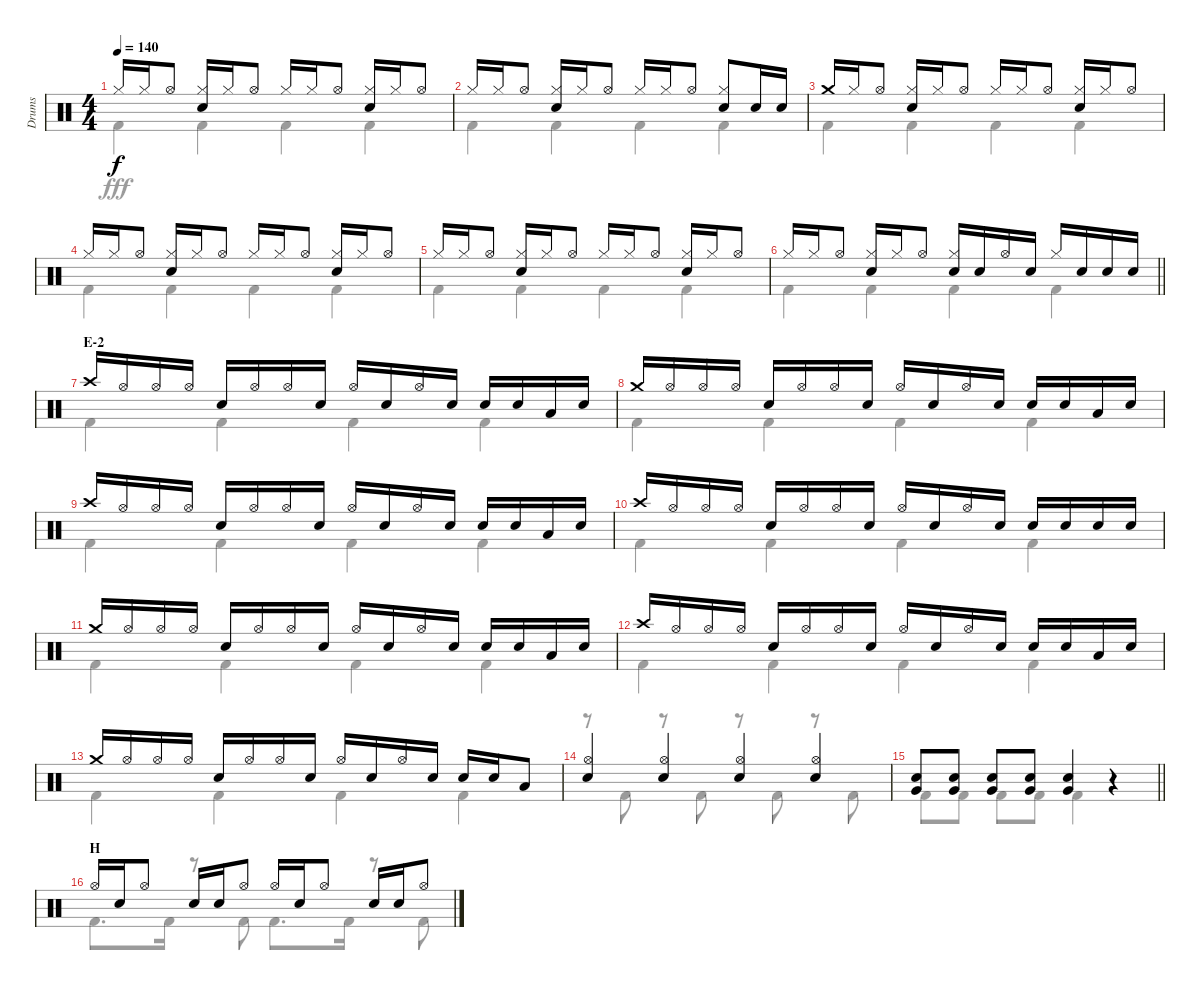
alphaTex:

\track ("Drums" "Drums") {instrument percussion}
\staff {score}
\articulation defaults
\voice
\ts (4 4)
\tempo 140
\clef neutral
\ks c "Hi-Hat (closed)".16{dy f} "Hi-Hat (closed)".16 "Hi-Hat (open)".8
("Hi-Hat (closed)" "Snare (hit) 2").16 "Hi-Hat (closed)".16 "Hi-Hat (open)".8 "Hi-Hat (closed)".16 "Hi-Hat (closed)".16 "Hi-Hat (open)".8 ("Hi-Hat (closed)" "Snare (hit) 2").16 "Hi-Hat (closed)".16 "Hi-Hat (open)".8 |
"Hi-Hat (closed)".16 "Hi-Hat (closed)".16 "Hi-Hat (open)".8 ("Hi-Hat (closed)" "Snare (hit) 2").16 "Hi-Hat (closed)".16 "Hi-Hat (open)".8 "Hi-Hat (closed)".16 "Hi-Hat (closed)".16 "Hi-Hat (open)".8 ("Hi-Hat (closed)" "Snare (hit) 2").8 "Snare (hit) 2".16 "Snare (hit) 2".16 |
"Crash medium (hit)".16 "Hi-Hat (closed)".16 "Hi-Hat (open)".8 ("Hi-Hat (closed)" "Snare (hit) 2").16 "Hi-Hat (closed)".16 "Hi-Hat (open)".8 "Hi-Hat (closed)".16 "Hi-Hat (closed)".16 "Hi-Hat (open)".8 ("Hi-Hat (closed)" "Snare (hit) 2").16 "Hi-Hat (closed)".16 "Hi-Hat (open)".8 |
"Hi-Hat (closed)".16 "Hi-Hat (closed)".16 "Hi-Hat (open)".8 ("Hi-Hat (closed)" "Snare (hit) 2").16 "Hi-Hat (closed)".16 "Hi-Hat (open)".8 "Hi-Hat (closed)".16 "Hi-Hat (closed)".16 "Hi-Hat (open)".8 ("Hi-Hat (closed)" "Snare (hit) 2").16 "Hi-Hat (closed)".16 "Hi-Hat (open)".8 |
"Hi-Hat (closed)".16 "Hi-Hat (closed)".16 "Hi-Hat (open)".8 ("Hi-Hat (closed)" "Snare (hit) 2").16 "Hi-Hat (closed)".16 "Hi-Hat (open)".8 "Hi-Hat (closed)".16 "Hi-Hat (closed)".16 "Hi-Hat (open)".8 ("Hi-Hat (closed)" "Snare (hit) 2").16 "Hi-Hat (closed)".16 "Hi-Hat (open)".8 |
\barLineRight lightlight "Hi-Hat (closed)".16 "Hi-Hat (closed)".16 "Hi-Hat (open)".8
("Hi-Hat (closed)" "Snare (hit) 2").16 "Hi-Hat (closed)".16 "Hi-Hat (open)".8 ("Hi-Hat (closed)" "Snare (hit) 2").16 "Snare (hit) 2".16 "Hi-Hat (open)".16 "Snare (hit) 2".16 "Hi-Hat (closed)".16 "Snare (hit) 2".16 "Snare (hit) 2".16 "Snare (hit) 2".16 |
\section ("" "E-2")
"Crash high (hit)".16 "Hi-Hat (open)".16 "Hi-Hat (open)".16 "Hi-Hat (open)".16 "Snare (hit) 2".16 "Hi-Hat (open)".16 "Hi-Hat (open)".16 "Snare (hit) 2".16 "Hi-Hat (open)".16 "Snare (hit) 2".16 "Hi-Hat (open)".16 "Snare (hit) 2".16 "Snare (hit) 2".16 "Snare (hit) 2".16 "Low Tom (hit)".16 "Snare (hit) 2".16 |
"Crash medium (hit)".16 "Hi-Hat (open)".16 "Hi-Hat (open)".16 "Hi-Hat (open)".16 "Snare (hit) 2".16 "Hi-Hat (open)".16 "Hi-Hat (open)".16 "Snare (hit) 2".16 "Hi-Hat (open)".16 "Snare (hit) 2".16 "Hi-Hat (open)".16 "Snare (hit) 2".16 "Snare (hit) 2".16 "Snare (hit) 2".16 "Low Tom (hit)".16 "Snare (hit) 2".16 |
"Crash high (hit)".16 "Hi-Hat (open)".16 "Hi-Hat (open)".16 "Hi-Hat (open)".16 "Snare (hit) 2".16 "Hi-Hat (open)".16 "Hi-Hat (open)".16 "Snare (hit) 2".16 "Hi-Hat (open)".16 "Snare (hit) 2".16 "Hi-Hat (open)".16 "Snare (hit) 2".16 "Snare (hit) 2".16 "Snare (hit) 2".16 "Low Tom (hit)".16 "Snare (hit) 2".16 |
"Crash high (hit)".16 "Hi-Hat (open)".16 "Hi-Hat (open)".16 "Hi-Hat (open)".16 "Snare (hit) 2".16 "Hi-Hat (open)".16 "Hi-Hat (open)".16 "Snare (hit) 2".16 "Hi-Hat (open)".16 "Snare (hit) 2".16 "Hi-Hat (open)".16 "Snare (hit) 2".16 "Snare (hit) 2".16 "Snare (hit) 2".16 "Snare (hit) 2".16 "Snare (hit) 2".16 |
"Crash medium (hit)".16 "Hi-Hat (open)".16 "Hi-Hat (open)".16 "Hi-Hat (open)".16 "Snare (hit) 2".16 "Hi-Hat (open)".16 "Hi-Hat (open)".16 "Snare (hit) 2".16 "Hi-Hat (open)".16 "Snare (hit) 2".16 "Hi-Hat (open)".16 "Snare (hit) 2".16 "Snare (hit) 2".16 "Snare (hit) 2".16 "Low Tom (hit)".16 "Snare (hit) 2".16 |
"Crash high (hit)".16 "Hi-Hat (open)".16 "Hi-Hat (open)".16 "Hi-Hat (open)".16 "Snare (hit) 2".16 "Hi-Hat (open)".16 "Hi-Hat (open)".16 "Snare (hit) 2".16 "Hi-Hat (open)".16 "Snare (hit) 2".16 "Hi-Hat (open)".16 "Snare (hit) 2".16 "Snare (hit) 2".16 "Snare (hit) 2".16 "Low Tom (hit)".16 "Snare (hit) 2".16 |
"Crash medium (hit)".16 "Hi-Hat (open)".16 "Hi-Hat (open)".16 "Hi-Hat (open)".16 "Snare (hit) 2".16 "Hi-Hat (open)".16 "Hi-Hat (open)".16 "Snare (hit) 2".16 "Hi-Hat (open)".16 "Snare (hit) 2".16 "Hi-Hat (open)".16 "Snare (hit) 2".16 "Snare (hit) 2".16 "Snare (hit) 2".16 "Low Tom (hit)".8 |
("Hi-Hat (open)" "Snare (hit) 2").4 ("Hi-Hat (open)" "Snare (hit) 2").4 ("Hi-Hat (open)" "Snare (hit) 2").4 ("Hi-Hat (open)" "Snare (hit) 2").4 |
\barLineRight lightlight
("Snare (hit) 2" "Very Low Tom (hit)").8 ("Snare (hit) 2" "Very Low Tom (hit)").8 ("Snare (hit) 2" "Very Low Tom (hit)").8 ("Snare (hit) 2" "Very Low Tom (hit)").8 ("Snare (hit) 2" "Very Low Tom (hit)").4 r.4 |
\section ("" "H")
"Hi-Hat (open)".16 "Snare (hit) 2".16 "Hi-Hat (open)".8 "Snare (hit) 2".16 "Snare (hit) 2".16 "Hi-Hat (open)".8 "Hi-Hat (open)".16 "Snare (hit) 2".16 "Hi-Hat (open)".8 "Snare (hit) 2".16 "Snare (hit) 2".16 "Hi-Hat (open)".8
\voice
\clef neutral
\ottava regular
\simile none
\ks c "Kick (hit) 2".4{dy fff} "Kick (hit) 2".4 "Kick (hit) 2".4 "Kick (hit) 2".4
|
"Kick (hit) 2".4 "Kick (hit) 2".4 "Kick (hit) 2".4 "Kick (hit) 2".4 |
"Kick (hit) 2".4 "Kick (hit) 2".4 "Kick (hit) 2".4 "Kick (hit) 2".4 |
"Kick (hit) 2".4 "Kick (hit) 2".4 "Kick (hit) 2".4 "Kick (hit) 2".4 |
"Kick (hit) 2".4 "Kick (hit) 2".4 "Kick (hit) 2".4 "Kick (hit) 2".4 |
\barLineRight lightlight "Kick (hit) 2".4 "Kick (hit) 2".4 "Kick (hit) 2".4 "Kick (hit) 2".4
|
"Kick (hit) 2".4 "Kick (hit) 2".4 "Kick (hit) 2".4 "Kick (hit) 2".4 |
"Kick (hit) 2".4 "Kick (hit) 2".4 "Kick (hit) 2".4 "Kick (hit) 2".4 |
"Kick (hit) 2".4 "Kick (hit) 2".4 "Kick (hit) 2".4 "Kick (hit) 2".4 |
"Kick (hit) 2".4 "Kick (hit) 2".4 "Kick (hit) 2".4 "Kick (hit) 2".4 |
"Kick (hit) 2".4 "Kick (hit) 2".4 "Kick (hit) 2".4 "Kick (hit) 2".4 |
"Kick (hit) 2".4 "Kick (hit) 2".4 "Kick (hit) 2".4 "Kick (hit) 2".4 |
"Kick (hit) 2".4 "Kick (hit) 2".4 "Kick (hit) 2".4 "Kick (hit) 2".4 |
r.8 "Kick (hit) 2".8 r.8 "Kick (hit) 2".8 r.8 "Kick (hit) 2".8 r.8 "Kick (hit) 2".8 |
\barLineRight lightlight "Kick (hit) 2".8 "Kick (hit) 2".8 "Kick (hit) 2".8 "Kick (hit) 2".8 "Kick (hit) 2".4
r.4 |
"Kick (hit) 2".8{d} "Kick (hit) 2".16 r.8 "Kick (hit) 2".8 "Kick (hit) 2".8{d} "Kick (hit) 2".16 r.8 "Kick (hit) 2".8
